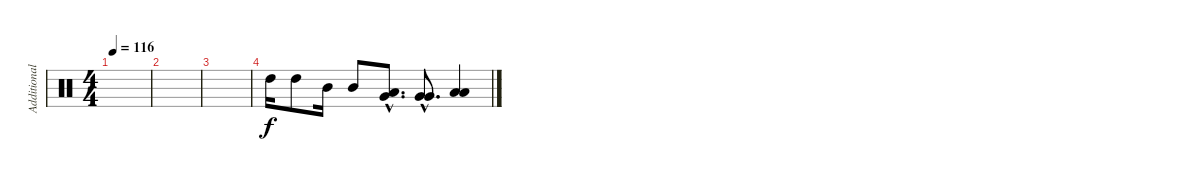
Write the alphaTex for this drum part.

\track ("Additional Drums" "Additional") {instrument percussion}
\staff {score}
\articulation defaults
\ts (4 4)
\tempo 116
\clef neutral
\ks c
|
|
|
"High Tom (hit)".16 "High Tom (hit)".8 "Mid Tom (hit)".16 "Mid Tom (hit)".8 ("Low Tom (hit)"{hac} "Very Low Tom (hit)"{hac}).8{d} ("Very Low Tom (hit)"{hac} "Very Low Tom (hit)"{hac}).8{d} ("Low Floor Tom (hit)" "Low Floor Tom (hit)").4
